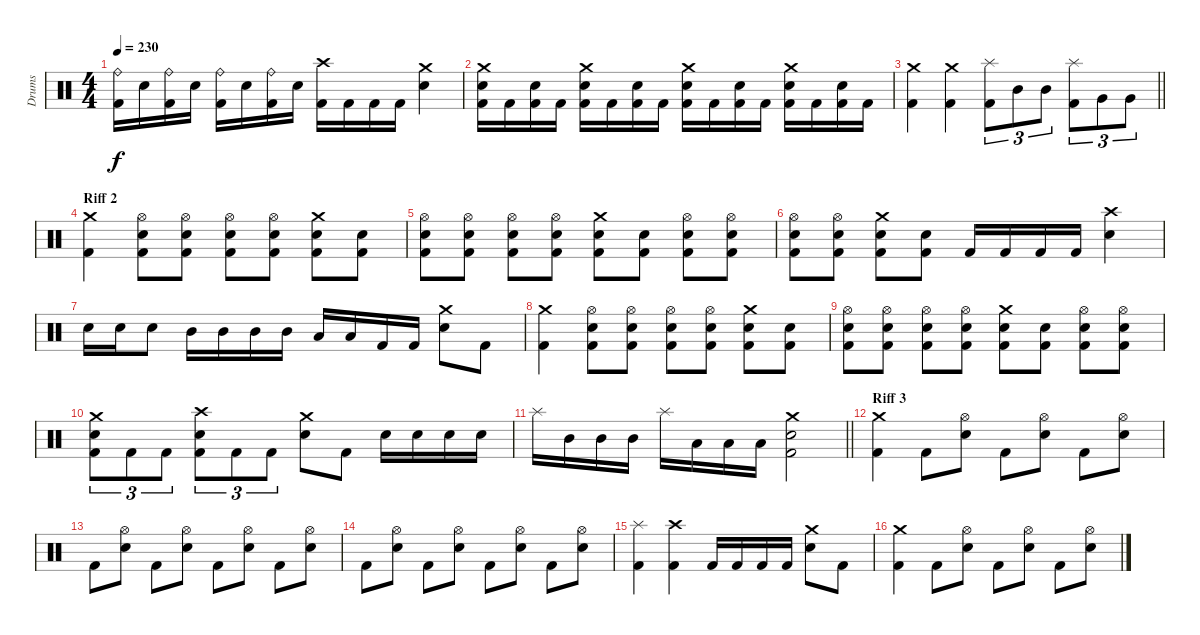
\track ("Drums" "Drums") {instrument percussion}
\staff {score}
\articulation defaults
\ts (4 4)
\tempo 230
\clef neutral
\ks c
("Ride (bell)" "Kick (hit) 2").16{dy f} "Electric Snare (hit)".16 ("Ride (bell)" "Kick (hit) 2").16 "Electric Snare (hit)".16 ("Ride (bell)" "Kick (hit) 2").16 "Electric Snare (hit)".16 ("Ride (bell)" "Kick (hit) 2").16 "Electric Snare (hit)".16 ("Kick (hit) 2" "Crash high (hit)").16 "Kick (hit) 2".16 "Kick (hit) 2".16 "Kick (hit) 2".16 ("Electric Snare (hit)" "Crash medium (hit)").4 |
("Electric Snare (hit)" "Crash medium (hit)" "Kick (hit) 2").16 "Kick (hit) 2".16 ("Electric Snare (hit)" "Kick (hit) 2").16 "Kick (hit) 2".16 ("Electric Snare (hit)" "Crash medium (hit)" "Kick (hit) 2").16 "Kick (hit) 2".16 ("Electric Snare (hit)" "Kick (hit) 2").16 "Kick (hit) 2".16 ("Electric Snare (hit)" "Crash medium (hit)" "Kick (hit) 2").16 "Kick (hit) 2".16 ("Electric Snare (hit)" "Kick (hit) 2").16 "Kick (hit) 2".16 ("Electric Snare (hit)" "Crash medium (hit)" "Kick (hit) 2").16 "Kick (hit) 2".16 ("Electric Snare (hit)" "Kick (hit) 2").16 "Kick (hit) 2".16 |
\barLineRight lightlight
("Crash medium (hit)" "Kick (hit) 2").4 ("Crash medium (hit)" "Kick (hit) 2").4 ("Splash (hit)" "Kick (hit) 2").8{tu (3 2)} "Mid Tom (hit)".8{tu (3 2)} "Mid Tom (hit)".8{tu (3 2)} ("Splash (hit)" "Kick (hit) 2").8{tu (3 2)} "Very Low Tom (hit)".8{tu (3 2)} "Very Low Tom (hit)".8{tu (3 2)} |
\section ("" "Riff 2")
("Crash medium (hit)" "Kick (hit) 2").4 ("Hi-Hat (open)" "Electric Snare (hit)" "Kick (hit) 2").8 ("Hi-Hat (open)" "Electric Snare (hit)" "Kick (hit) 2").8 ("Hi-Hat (open)" "Electric Snare (hit)" "Kick (hit) 2").8 ("Hi-Hat (open)" "Electric Snare (hit)" "Kick (hit) 2").8 ("Crash medium (hit)" "Electric Snare (hit)" "Kick (hit) 2").8 ("Electric Snare (hit)" "Kick (hit) 2").8 |
("Hi-Hat (open)" "Electric Snare (hit)" "Kick (hit) 2").8 ("Hi-Hat (open)" "Electric Snare (hit)" "Kick (hit) 2").8 ("Hi-Hat (open)" "Electric Snare (hit)" "Kick (hit) 2").8 ("Hi-Hat (open)" "Electric Snare (hit)" "Kick (hit) 2").8 ("Crash medium (hit)" "Electric Snare (hit)" "Kick (hit) 2").8 ("Electric Snare (hit)" "Kick (hit) 2").8 ("Hi-Hat (open)" "Electric Snare (hit)" "Kick (hit) 2").8 ("Hi-Hat (open)" "Electric Snare (hit)" "Kick (hit) 2").8 |
("Hi-Hat (open)" "Electric Snare (hit)" "Kick (hit) 2").8 ("Hi-Hat (open)" "Electric Snare (hit)" "Kick (hit) 2").8 ("Crash medium (hit)" "Electric Snare (hit)" "Kick (hit) 2").8 ("Electric Snare (hit)" "Kick (hit) 2").8 "Kick (hit) 2".16 "Kick (hit) 2".16 "Kick (hit) 2".16 "Kick (hit) 2".16 ("Electric Snare (hit)" "Crash high (hit)").4 |
"Electric Snare (hit)".16 "Electric Snare (hit)".16 "Electric Snare (hit)".8 "Mid Tom (hit)".16 "Mid Tom (hit)".16 "Mid Tom (hit)".16 "Mid Tom (hit)".16 "Low Tom (hit)".16 "Low Tom (hit)".16 "Kick (hit) 2".16 "Kick (hit) 2".16 ("Electric Snare (hit)" "Crash medium (hit)").8 "Kick (hit) 2".8 |
("Crash medium (hit)" "Kick (hit) 2").4 ("Hi-Hat (open)" "Electric Snare (hit)" "Kick (hit) 2").8 ("Hi-Hat (open)" "Electric Snare (hit)" "Kick (hit) 2").8 ("Hi-Hat (open)" "Electric Snare (hit)" "Kick (hit) 2").8 ("Hi-Hat (open)" "Electric Snare (hit)" "Kick (hit) 2").8 ("Crash medium (hit)" "Electric Snare (hit)" "Kick (hit) 2").8 ("Electric Snare (hit)" "Kick (hit) 2").8 |
("Hi-Hat (open)" "Electric Snare (hit)" "Kick (hit) 2").8 ("Hi-Hat (open)" "Electric Snare (hit)" "Kick (hit) 2").8 ("Hi-Hat (open)" "Electric Snare (hit)" "Kick (hit) 2").8 ("Hi-Hat (open)" "Electric Snare (hit)" "Kick (hit) 2").8 ("Crash medium (hit)" "Electric Snare (hit)" "Kick (hit) 2").8 ("Electric Snare (hit)" "Kick (hit) 2").8 ("Hi-Hat (open)" "Electric Snare (hit)" "Kick (hit) 2").8 ("Hi-Hat (open)" "Electric Snare (hit)" "Kick (hit) 2").8 |
("Crash medium (hit)" "Electric Snare (hit)" "Kick (hit) 2").8{tu (3 2)} "Kick (hit) 2".8{tu (3 2)} "Kick (hit) 2".8{tu (3 2)} ("Crash high (hit)" "Electric Snare (hit)" "Kick (hit) 2").8{tu (3 2)} "Kick (hit) 2".8{tu (3 2)} "Kick (hit) 2".8{tu (3 2)} ("Crash medium (hit)" "Electric Snare (hit)").8 "Kick (hit) 2".8 "Electric Snare (hit)".16 "Electric Snare (hit)".16 "Electric Snare (hit)".16 "Electric Snare (hit)".16 |
\barLineRight lightlight "Splash (hit)".16 "Mid Tom (hit)".16 "Mid Tom (hit)".16 "Mid Tom (hit)".16 "Splash (hit)".16 "Low Tom (hit)".16 "Low Tom (hit)".16 "Low Tom (hit)".16
("Electric Snare (hit)" "Kick (hit) 2" "Crash medium (hit)").2 |
\section ("" "Riff 3")
("Kick (hit) 2" "Crash medium (hit)").4 "Kick (hit) 2".8 ("Hi-Hat (open)" "Electric Snare (hit)").8 "Kick (hit) 2".8 ("Hi-Hat (open)" "Electric Snare (hit)").8 "Kick (hit) 2".8 ("Hi-Hat (open)" "Electric Snare (hit)").8 |
"Kick (hit) 2".8 ("Hi-Hat (open)" "Electric Snare (hit)").8 "Kick (hit) 2".8 ("Hi-Hat (open)" "Electric Snare (hit)").8 "Kick (hit) 2".8 ("Hi-Hat (open)" "Electric Snare (hit)").8 "Kick (hit) 2".8 ("Hi-Hat (open)" "Electric Snare (hit)").8 |
"Kick (hit) 2".8 ("Hi-Hat (open)" "Electric Snare (hit)").8 "Kick (hit) 2".8 ("Hi-Hat (open)" "Electric Snare (hit)").8 "Kick (hit) 2".8 ("Hi-Hat (open)" "Electric Snare (hit)").8 "Kick (hit) 2".8 ("Hi-Hat (open)" "Electric Snare (hit)").8 |
("Kick (hit) 2" "Splash (hit)").4 ("Kick (hit) 2" "Crash high (hit)").4 "Kick (hit) 2".16 "Kick (hit) 2".16 "Kick (hit) 2".16 "Kick (hit) 2".16 ("Crash medium (hit)" "Electric Snare (hit)").8 "Kick (hit) 2".8 |
("Kick (hit) 2" "Crash medium (hit)").4 "Kick (hit) 2".8 ("Hi-Hat (open)" "Electric Snare (hit)").8 "Kick (hit) 2".8 ("Hi-Hat (open)" "Electric Snare (hit)").8 "Kick (hit) 2".8 ("Hi-Hat (open)" "Electric Snare (hit)").8
